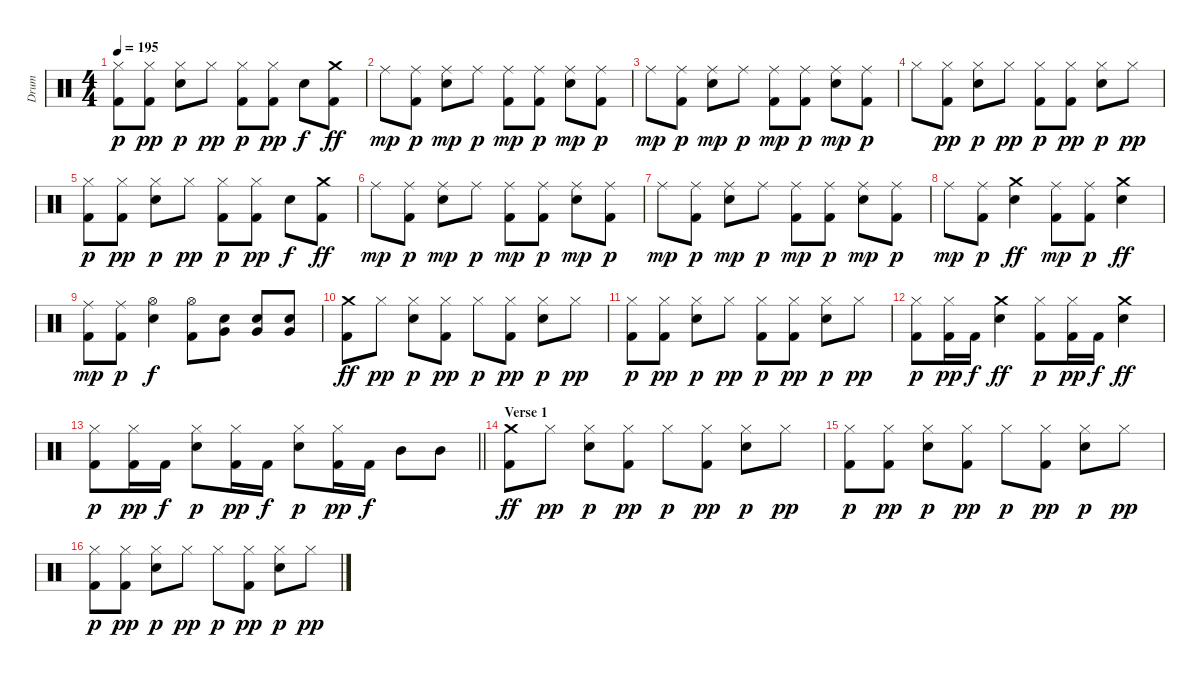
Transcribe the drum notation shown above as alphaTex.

\track ("Drum" "Drum") {instrument percussion}
\staff {score}
\articulation defaults
\ts (4 4)
\tempo 195
\clef neutral
\ks c
("Hi-Hat (closed)" "Kick (hit) 2").8{dy p} ("Hi-Hat (closed)" "Kick (hit) 2").8{dy pp} ("Hi-Hat (closed)" "Electric Snare (hit)").8{dy p} "Hi-Hat (closed)".8{dy pp} ("Hi-Hat (closed)" "Kick (hit) 2").8{dy p} ("Hi-Hat (closed)" "Kick (hit) 2").8{dy pp} "Electric Snare (hit)".8{dy f} ("Crash medium (hit)" "Kick (hit) 2").8{dy ff} |
"Ride (middle)".8{dy mp} ("Ride (middle)" "Kick (hit) 2").8{dy p} ("Ride (middle)" "Electric Snare (hit)").8{dy mp} "Ride (middle)".8{dy p} ("Ride (middle)" "Kick (hit) 2").8{dy mp} ("Ride (middle)" "Kick (hit) 2").8{dy p} ("Ride (middle)" "Electric Snare (hit)").8{dy mp} ("Ride (middle)" "Kick (hit) 2").8{dy p} |
"Ride (middle)".8{dy mp} ("Ride (middle)" "Kick (hit) 2").8{dy p} ("Ride (middle)" "Electric Snare (hit)").8{dy mp} "Ride (middle)".8{dy p} ("Ride (middle)" "Kick (hit) 2").8{dy mp} ("Ride (middle)" "Kick (hit) 2").8{dy p} ("Ride (middle)" "Electric Snare (hit)").8{dy mp} ("Ride (middle)" "Kick (hit) 2").8{dy p} |
"Hi-Hat (closed)".8 ("Hi-Hat (closed)" "Kick (hit) 2").8{dy pp} ("Hi-Hat (closed)" "Electric Snare (hit)").8{dy p} "Hi-Hat (closed)".8{dy pp} ("Hi-Hat (closed)" "Kick (hit) 2").8{dy p} ("Hi-Hat (closed)" "Kick (hit) 2").8{dy pp} ("Hi-Hat (closed)" "Electric Snare (hit)").8{dy p} "Hi-Hat (closed)".8{dy pp} |
("Hi-Hat (closed)" "Kick (hit) 2").8{dy p} ("Hi-Hat (closed)" "Kick (hit) 2").8{dy pp} ("Hi-Hat (closed)" "Electric Snare (hit)").8{dy p} "Hi-Hat (closed)".8{dy pp} ("Hi-Hat (closed)" "Kick (hit) 2").8{dy p} ("Hi-Hat (closed)" "Kick (hit) 2").8{dy pp} "Electric Snare (hit)".8{dy f} ("Crash medium (hit)" "Kick (hit) 2").8{dy ff} |
"Ride (middle)".8{dy mp} ("Ride (middle)" "Kick (hit) 2").8{dy p} ("Ride (middle)" "Electric Snare (hit)").8{dy mp} "Ride (middle)".8{dy p} ("Ride (middle)" "Kick (hit) 2").8{dy mp} ("Ride (middle)" "Kick (hit) 2").8{dy p} ("Ride (middle)" "Electric Snare (hit)").8{dy mp} ("Ride (middle)" "Kick (hit) 2").8{dy p} |
"Ride (middle)".8{dy mp} ("Ride (middle)" "Kick (hit) 2").8{dy p} ("Ride (middle)" "Electric Snare (hit)").8{dy mp} "Ride (middle)".8{dy p} ("Ride (middle)" "Kick (hit) 2").8{dy mp} ("Ride (middle)" "Kick (hit) 2").8{dy p} ("Ride (middle)" "Electric Snare (hit)").8{dy mp} ("Ride (middle)" "Kick (hit) 2").8{dy p} |
"Ride (middle)".8{dy mp} ("Ride (middle)" "Kick (hit) 2").8{dy p} ("Crash medium (hit)" "Electric Snare (hit)").4{dy ff} ("Ride (middle)" "Kick (hit) 2").8{dy mp} ("Ride (middle)" "Kick (hit) 2").8{dy p} ("Crash medium (hit)" "Electric Snare (hit)").4{dy ff} |
("Ride (middle)" "Kick (hit) 2").8{dy mp} ("Ride (middle)" "Kick (hit) 2").8{dy p} ("Hi-Hat (open)" "Electric Snare (hit)").4{dy f} ("Hi-Hat (open)" "Kick (hit) 2").8 ("Electric Snare (hit)" "Very Low Tom (hit)").8 ("Electric Snare (hit)" "Very Low Tom (hit)").8 ("Electric Snare (hit)" "Very Low Tom (hit)").8 |
("Crash medium (hit)" "Kick (hit) 2").8{dy ff} "Hi-Hat (closed)".8{dy pp} ("Hi-Hat (closed)" "Electric Snare (hit)").8{dy p} ("Hi-Hat (closed)" "Kick (hit) 2").8{dy pp} "Hi-Hat (closed)".8{dy p} ("Hi-Hat (closed)" "Kick (hit) 2").8{dy pp} ("Hi-Hat (closed)" "Electric Snare (hit)").8{dy p} "Hi-Hat (closed)".8{dy pp} |
("Hi-Hat (closed)" "Kick (hit) 2").8{dy p} ("Hi-Hat (closed)" "Kick (hit) 2").8{dy pp} ("Hi-Hat (closed)" "Electric Snare (hit)").8{dy p} "Hi-Hat (closed)".8{dy pp} ("Hi-Hat (closed)" "Kick (hit) 2").8{dy p} ("Hi-Hat (closed)" "Kick (hit) 2").8{dy pp} ("Hi-Hat (closed)" "Electric Snare (hit)").8{dy p} "Hi-Hat (closed)".8{dy pp} |
("Hi-Hat (closed)" "Kick (hit) 2").8{dy p} ("Hi-Hat (closed)" "Kick (hit) 2").16{dy pp} "Kick (hit) 2".16{dy f} ("Crash medium (hit)" "Electric Snare (hit)").4{dy ff} ("Hi-Hat (closed)" "Kick (hit) 2").8{dy p} ("Hi-Hat (closed)" "Kick (hit) 2").16{dy pp} "Kick (hit) 2".16{dy f} ("Crash medium (hit)" "Electric Snare (hit)").4{dy ff} |
\barLineRight lightlight
("Hi-Hat (closed)" "Kick (hit) 2").8{dy p} ("Hi-Hat (closed)" "Kick (hit) 2").16{dy pp} "Kick (hit) 2".16{dy f} ("Hi-Hat (closed)" "Electric Snare (hit)").8{dy p} ("Hi-Hat (closed)" "Kick (hit) 2").16{dy pp} "Kick (hit) 2".16{dy f} ("Hi-Hat (closed)" "Electric Snare (hit)").8{dy p} ("Hi-Hat (closed)" "Kick (hit) 2").16{dy pp} "Kick (hit) 2".16{dy f} "Mid Tom (hit)".8 "Mid Tom (hit)".8 |
\section ("" "Verse 1")
("Crash medium (hit)" "Kick (hit) 2").8{dy ff} "Hi-Hat (closed)".8{dy pp} ("Hi-Hat (closed)" "Electric Snare (hit)").8{dy p} ("Hi-Hat (closed)" "Kick (hit) 2").8{dy pp} "Hi-Hat (closed)".8{dy p} ("Hi-Hat (closed)" "Kick (hit) 2").8{dy pp} ("Hi-Hat (closed)" "Electric Snare (hit)").8{dy p} "Hi-Hat (closed)".8{dy pp} |
("Hi-Hat (closed)" "Kick (hit) 2").8{dy p} ("Hi-Hat (closed)" "Kick (hit) 2").8{dy pp} ("Hi-Hat (closed)" "Electric Snare (hit)").8{dy p} ("Hi-Hat (closed)" "Kick (hit) 2").8{dy pp} "Hi-Hat (closed)".8{dy p} ("Hi-Hat (closed)" "Kick (hit) 2").8{dy pp} ("Hi-Hat (closed)" "Electric Snare (hit)").8{dy p} "Hi-Hat (closed)".8{dy pp} |
("Hi-Hat (closed)" "Kick (hit) 2").8{dy p} ("Hi-Hat (closed)" "Kick (hit) 2").8{dy pp} ("Hi-Hat (closed)" "Electric Snare (hit)").8{dy p} "Hi-Hat (closed)".8{dy pp} "Hi-Hat (closed)".8{dy p} ("Hi-Hat (closed)" "Kick (hit) 2").8{dy pp} ("Hi-Hat (closed)" "Electric Snare (hit)").8{dy p} "Hi-Hat (closed)".8{dy pp}
